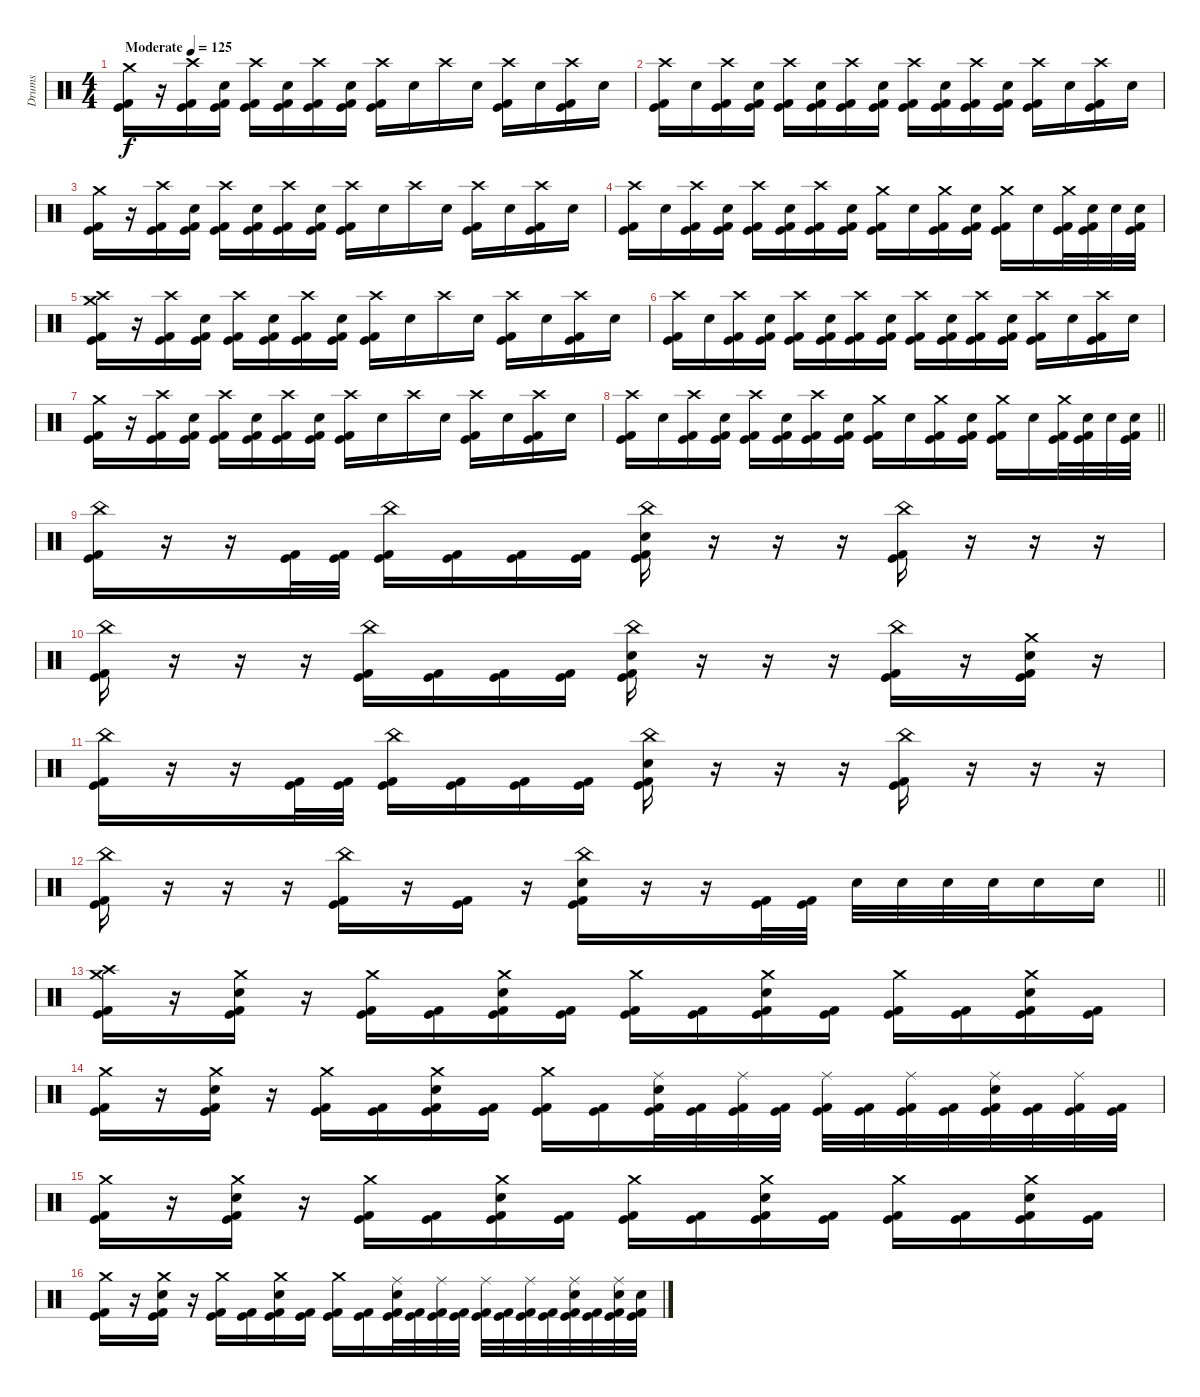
\track ("Drums" "Drums") {instrument percussion}
\staff {score}
\articulation defaults
\ts (4 4)
\tempo (125 "Moderate")
\clef neutral
\ks c
("Crash medium (hit)" "Kick (hit)" "Kick (hit) 2").16{dy f} r.16 ("Crash high (hit)" "Kick (hit)" "Kick (hit) 2").16 ("Electric Snare (hit)" "Kick (hit)" "Kick (hit) 2").16 ("Crash high (hit)" "Kick (hit)" "Kick (hit) 2").16 ("Electric Snare (hit)" "Kick (hit)" "Kick (hit) 2").16 ("Crash high (hit)" "Kick (hit)" "Kick (hit) 2").16 ("Electric Snare (hit)" "Kick (hit)" "Kick (hit) 2").16 ("Crash high (hit)" "Kick (hit)" "Kick (hit) 2").16 "Electric Snare (hit)".16 "Crash high (hit)".16 "Electric Snare (hit)".16 ("Crash high (hit)" "Kick (hit)" "Kick (hit) 2").16 "Electric Snare (hit)".16 ("Crash high (hit)" "Kick (hit)" "Kick (hit) 2").16 "Electric Snare (hit)".16 |
("Crash high (hit)" "Kick (hit)" "Kick (hit) 2").16 "Electric Snare (hit)".16 ("Crash high (hit)" "Kick (hit)" "Kick (hit) 2").16 ("Electric Snare (hit)" "Kick (hit)" "Kick (hit) 2").16 ("Crash high (hit)" "Kick (hit)" "Kick (hit) 2").16 ("Electric Snare (hit)" "Kick (hit)" "Kick (hit) 2").16 ("Crash high (hit)" "Kick (hit)" "Kick (hit) 2").16 ("Electric Snare (hit)" "Kick (hit)" "Kick (hit) 2").16 ("Crash high (hit)" "Kick (hit)" "Kick (hit) 2").16 ("Electric Snare (hit)" "Kick (hit)" "Kick (hit) 2").16 ("Crash high (hit)" "Kick (hit)" "Kick (hit) 2").16 ("Electric Snare (hit)" "Kick (hit)" "Kick (hit) 2").16 ("Crash high (hit)" "Kick (hit)" "Kick (hit) 2").16 "Electric Snare (hit)".16 ("Crash high (hit)" "Kick (hit)" "Kick (hit) 2").16 "Electric Snare (hit)".16 |
("Crash medium (hit)" "Kick (hit)" "Kick (hit) 2").16 r.16 ("Crash high (hit)" "Kick (hit)" "Kick (hit) 2").16 ("Electric Snare (hit)" "Kick (hit)" "Kick (hit) 2").16 ("Crash high (hit)" "Kick (hit)" "Kick (hit) 2").16 ("Electric Snare (hit)" "Kick (hit)" "Kick (hit) 2").16 ("Crash high (hit)" "Kick (hit)" "Kick (hit) 2").16 ("Electric Snare (hit)" "Kick (hit)" "Kick (hit) 2").16 ("Crash high (hit)" "Kick (hit)" "Kick (hit) 2").16 "Electric Snare (hit)".16 "Crash high (hit)".16 "Electric Snare (hit)".16 ("Crash high (hit)" "Kick (hit)" "Kick (hit) 2").16 "Electric Snare (hit)".16 ("Crash high (hit)" "Kick (hit)" "Kick (hit) 2").16 "Electric Snare (hit)".16 |
("Crash high (hit)" "Kick (hit)" "Kick (hit) 2").16 "Electric Snare (hit)".16 ("Crash high (hit)" "Kick (hit)" "Kick (hit) 2").16 ("Electric Snare (hit)" "Kick (hit)" "Kick (hit) 2").16 ("Crash high (hit)" "Kick (hit)" "Kick (hit) 2").16 ("Electric Snare (hit)" "Kick (hit)" "Kick (hit) 2").16 ("Crash high (hit)" "Kick (hit)" "Kick (hit) 2").16 ("Electric Snare (hit)" "Kick (hit)" "Kick (hit) 2").16 ("Crash medium (hit)" "Kick (hit)" "Kick (hit) 2").16 "Electric Snare (hit)".16 ("Crash medium (hit)" "Kick (hit)" "Kick (hit) 2").16 ("Electric Snare (hit)" "Kick (hit)" "Kick (hit) 2").16 ("Crash medium (hit)" "Kick (hit)" "Kick (hit) 2").16 "Electric Snare (hit)".16 ("Crash medium (hit)" "Kick (hit)" "Kick (hit) 2").32 ("Electric Snare (hit)" "Kick (hit)" "Kick (hit) 2").32 "Electric Snare (hit)".32 ("Electric Snare (hit)" "Kick (hit)" "Kick (hit) 2").32 |
("Crash medium (hit)" "Crash high (hit)" "Kick (hit)" "Kick (hit) 2").16 r.16 ("Crash high (hit)" "Kick (hit)" "Kick (hit) 2").16 ("Electric Snare (hit)" "Kick (hit)" "Kick (hit) 2").16 ("Crash high (hit)" "Kick (hit)" "Kick (hit) 2").16 ("Electric Snare (hit)" "Kick (hit)" "Kick (hit) 2").16 ("Crash high (hit)" "Kick (hit)" "Kick (hit) 2").16 ("Electric Snare (hit)" "Kick (hit)" "Kick (hit) 2").16 ("Crash high (hit)" "Kick (hit)" "Kick (hit) 2").16 "Electric Snare (hit)".16 "Crash high (hit)".16 "Electric Snare (hit)".16 ("Crash high (hit)" "Kick (hit)" "Kick (hit) 2").16 "Electric Snare (hit)".16 ("Crash high (hit)" "Kick (hit)" "Kick (hit) 2").16 "Electric Snare (hit)".16 |
("Crash high (hit)" "Kick (hit)" "Kick (hit) 2").16 "Electric Snare (hit)".16 ("Crash high (hit)" "Kick (hit)" "Kick (hit) 2").16 ("Electric Snare (hit)" "Kick (hit)" "Kick (hit) 2").16 ("Crash high (hit)" "Kick (hit)" "Kick (hit) 2").16 ("Electric Snare (hit)" "Kick (hit)" "Kick (hit) 2").16 ("Crash high (hit)" "Kick (hit)" "Kick (hit) 2").16 ("Electric Snare (hit)" "Kick (hit)" "Kick (hit) 2").16 ("Crash high (hit)" "Kick (hit)" "Kick (hit) 2").16 ("Electric Snare (hit)" "Kick (hit)" "Kick (hit) 2").16 ("Crash high (hit)" "Kick (hit)" "Kick (hit) 2").16 ("Electric Snare (hit)" "Kick (hit)" "Kick (hit) 2").16 ("Crash high (hit)" "Kick (hit)" "Kick (hit) 2").16 "Electric Snare (hit)".16 ("Crash high (hit)" "Kick (hit)" "Kick (hit) 2").16 "Electric Snare (hit)".16 |
("Crash medium (hit)" "Kick (hit)" "Kick (hit) 2").16 r.16 ("Crash high (hit)" "Kick (hit)" "Kick (hit) 2").16 ("Electric Snare (hit)" "Kick (hit)" "Kick (hit) 2").16 ("Crash high (hit)" "Kick (hit)" "Kick (hit) 2").16 ("Electric Snare (hit)" "Kick (hit)" "Kick (hit) 2").16 ("Crash high (hit)" "Kick (hit)" "Kick (hit) 2").16 ("Electric Snare (hit)" "Kick (hit)" "Kick (hit) 2").16 ("Crash high (hit)" "Kick (hit)" "Kick (hit) 2").16 "Electric Snare (hit)".16 "Crash high (hit)".16 "Electric Snare (hit)".16 ("Crash high (hit)" "Kick (hit)" "Kick (hit) 2").16 "Electric Snare (hit)".16 ("Crash high (hit)" "Kick (hit)" "Kick (hit) 2").16 "Electric Snare (hit)".16 |
\barLineRight lightlight
("Crash high (hit)" "Kick (hit)" "Kick (hit) 2").16 "Electric Snare (hit)".16 ("Crash high (hit)" "Kick (hit)" "Kick (hit) 2").16 ("Electric Snare (hit)" "Kick (hit)" "Kick (hit) 2").16 ("Crash high (hit)" "Kick (hit)" "Kick (hit) 2").16 ("Electric Snare (hit)" "Kick (hit)" "Kick (hit) 2").16 ("Crash high (hit)" "Kick (hit)" "Kick (hit) 2").16 ("Electric Snare (hit)" "Kick (hit)" "Kick (hit) 2").16 ("Crash medium (hit)" "Kick (hit)" "Kick (hit) 2").16 "Electric Snare (hit)".16 ("Crash medium (hit)" "Kick (hit)" "Kick (hit) 2").16 ("Electric Snare (hit)" "Kick (hit)" "Kick (hit) 2").16 ("Crash medium (hit)" "Kick (hit)" "Kick (hit) 2").16 "Electric Snare (hit)".16 ("Crash medium (hit)" "Kick (hit)" "Kick (hit) 2").32 ("Electric Snare (hit)" "Kick (hit)" "Kick (hit) 2").32 "Electric Snare (hit)".32 ("Electric Snare (hit)" "Kick (hit)" "Kick (hit) 2").32 |
("China (hit)" "Kick (hit)" "Kick (hit) 2").16 r.16 r.16 ("Kick (hit)" "Kick (hit) 2").32 ("Kick (hit)" "Kick (hit) 2").32 ("China (hit)" "Kick (hit)" "Kick (hit) 2").16 ("Kick (hit)" "Kick (hit) 2").16 ("Kick (hit)" "Kick (hit) 2").16 ("Kick (hit)" "Kick (hit) 2").16 ("China (hit)" "Electric Snare (hit)" "Kick (hit)" "Kick (hit) 2").16 r.16 r.16 r.16 ("China (hit)" "Kick (hit)" "Kick (hit) 2").16 r.16 r.16 r.16 |
("China (hit)" "Kick (hit)" "Kick (hit) 2").16 r.16 r.16 r.16 ("China (hit)" "Kick (hit)" "Kick (hit) 2").16 ("Kick (hit)" "Kick (hit) 2").16 ("Kick (hit)" "Kick (hit) 2").16 ("Kick (hit)" "Kick (hit) 2").16 ("China (hit)" "Electric Snare (hit)" "Kick (hit)" "Kick (hit) 2").16 r.16 r.16 r.16 ("China (hit)" "Kick (hit)" "Kick (hit) 2").16 r.16 ("Crash medium (hit)" "Electric Snare (hit)" "Kick (hit)" "Kick (hit) 2").16 r.16 |
("China (hit)" "Kick (hit)" "Kick (hit) 2").16 r.16 r.16 ("Kick (hit)" "Kick (hit) 2").32 ("Kick (hit)" "Kick (hit) 2").32 ("China (hit)" "Kick (hit)" "Kick (hit) 2").16 ("Kick (hit)" "Kick (hit) 2").16 ("Kick (hit)" "Kick (hit) 2").16 ("Kick (hit)" "Kick (hit) 2").16 ("China (hit)" "Electric Snare (hit)" "Kick (hit)" "Kick (hit) 2").16 r.16 r.16 r.16 ("China (hit)" "Kick (hit)" "Kick (hit) 2").16 r.16 r.16 r.16 |
\barLineRight lightlight
("China (hit)" "Kick (hit)" "Kick (hit) 2").16 r.16 r.16 r.16 ("China (hit)" "Kick (hit)" "Kick (hit) 2").16 r.16 ("Kick (hit)" "Kick (hit) 2").16 r.16 ("China (hit)" "Electric Snare (hit)" "Kick (hit)" "Kick (hit) 2").16 r.16 r.16 ("Kick (hit)" "Kick (hit) 2").32 ("Kick (hit)" "Kick (hit) 2").32 "Electric Snare (hit)".32 "Electric Snare (hit)".32 "Electric Snare (hit)".32 "Electric Snare (hit)".32 "Electric Snare (hit)".16 "Electric Snare (hit)".16 |
("Crash medium (hit)" "Crash high (hit)" "Kick (hit)" "Kick (hit) 2").16 r.16 ("Crash medium (hit)" "Electric Snare (hit)" "Kick (hit)" "Kick (hit) 2").16 r.16 ("Crash medium (hit)" "Kick (hit)" "Kick (hit) 2").16 ("Kick (hit)" "Kick (hit) 2").16 ("Crash medium (hit)" "Electric Snare (hit)" "Kick (hit)" "Kick (hit) 2").16 ("Kick (hit)" "Kick (hit) 2").16 ("Crash medium (hit)" "Kick (hit)" "Kick (hit) 2").16 ("Kick (hit)" "Kick (hit) 2").16 ("Crash medium (hit)" "Electric Snare (hit)" "Kick (hit)" "Kick (hit) 2").16 ("Kick (hit)" "Kick (hit) 2").16 ("Crash medium (hit)" "Kick (hit)" "Kick (hit) 2").16 ("Kick (hit)" "Kick (hit) 2").16 ("Crash medium (hit)" "Electric Snare (hit)" "Kick (hit)" "Kick (hit) 2").16 ("Kick (hit)" "Kick (hit) 2").16 |
("Crash medium (hit)" "Kick (hit)" "Kick (hit) 2").16 r.16 ("Crash medium (hit)" "Electric Snare (hit)" "Kick (hit)" "Kick (hit) 2").16 r.16 ("Crash medium (hit)" "Kick (hit)" "Kick (hit) 2").16 ("Kick (hit)" "Kick (hit) 2").16 ("Crash medium (hit)" "Electric Snare (hit)" "Kick (hit)" "Kick (hit) 2").16 ("Kick (hit)" "Kick (hit) 2").16 ("Crash medium (hit)" "Kick (hit)" "Kick (hit) 2").16 ("Kick (hit)" "Kick (hit) 2").16 ("Ride (middle)" "Electric Snare (hit)" "Kick (hit)" "Kick (hit) 2").32 ("Kick (hit)" "Kick (hit) 2").32 ("Ride (middle)" "Kick (hit)" "Kick (hit) 2").32 ("Kick (hit)" "Kick (hit) 2").32 ("Ride (middle)" "Kick (hit)" "Kick (hit) 2").32 ("Kick (hit)" "Kick (hit) 2").32 ("Ride (middle)" "Kick (hit)" "Kick (hit) 2").32 ("Kick (hit)" "Kick (hit) 2").32 ("Ride (middle)" "Electric Snare (hit)" "Kick (hit)" "Kick (hit) 2").32 ("Kick (hit)" "Kick (hit) 2").32 ("Ride (middle)" "Kick (hit)" "Kick (hit) 2").32 ("Kick (hit)" "Kick (hit) 2").32 |
("Crash medium (hit)" "Kick (hit)" "Kick (hit) 2").16 r.16 ("Crash medium (hit)" "Electric Snare (hit)" "Kick (hit)" "Kick (hit) 2").16 r.16 ("Crash medium (hit)" "Kick (hit)" "Kick (hit) 2").16 ("Kick (hit)" "Kick (hit) 2").16 ("Crash medium (hit)" "Electric Snare (hit)" "Kick (hit)" "Kick (hit) 2").16 ("Kick (hit)" "Kick (hit) 2").16 ("Crash medium (hit)" "Kick (hit)" "Kick (hit) 2").16 ("Kick (hit)" "Kick (hit) 2").16 ("Crash medium (hit)" "Electric Snare (hit)" "Kick (hit)" "Kick (hit) 2").16 ("Kick (hit)" "Kick (hit) 2").16 ("Crash medium (hit)" "Kick (hit)" "Kick (hit) 2").16 ("Kick (hit)" "Kick (hit) 2").16 ("Crash medium (hit)" "Electric Snare (hit)" "Kick (hit)" "Kick (hit) 2").16 ("Kick (hit)" "Kick (hit) 2").16 |
("Crash medium (hit)" "Kick (hit)" "Kick (hit) 2").16 r.16 ("Crash medium (hit)" "Electric Snare (hit)" "Kick (hit)" "Kick (hit) 2").16 r.16 ("Crash medium (hit)" "Kick (hit)" "Kick (hit) 2").16 ("Kick (hit)" "Kick (hit) 2").16 ("Crash medium (hit)" "Electric Snare (hit)" "Kick (hit)" "Kick (hit) 2").16 ("Kick (hit)" "Kick (hit) 2").16 ("Crash medium (hit)" "Kick (hit)" "Kick (hit) 2").16 ("Kick (hit)" "Kick (hit) 2").16 ("Ride (middle)" "Electric Snare (hit)" "Kick (hit)" "Kick (hit) 2").32 ("Kick (hit)" "Kick (hit) 2").32 ("Ride (middle)" "Kick (hit)" "Kick (hit) 2").32 ("Kick (hit)" "Kick (hit) 2").32 ("Ride (middle)" "Kick (hit)" "Kick (hit) 2").32 ("Kick (hit)" "Kick (hit) 2").32 ("Ride (middle)" "Kick (hit)" "Kick (hit) 2").32 ("Kick (hit)" "Kick (hit) 2").32 ("Ride (middle)" "Electric Snare (hit)" "Kick (hit)" "Kick (hit) 2").32 ("Kick (hit)" "Kick (hit) 2").32 ("Ride (middle)" "Electric Snare (hit)" "Kick (hit)" "Kick (hit) 2").32 ("Electric Snare (hit)" "Kick (hit)" "Kick (hit) 2").32
